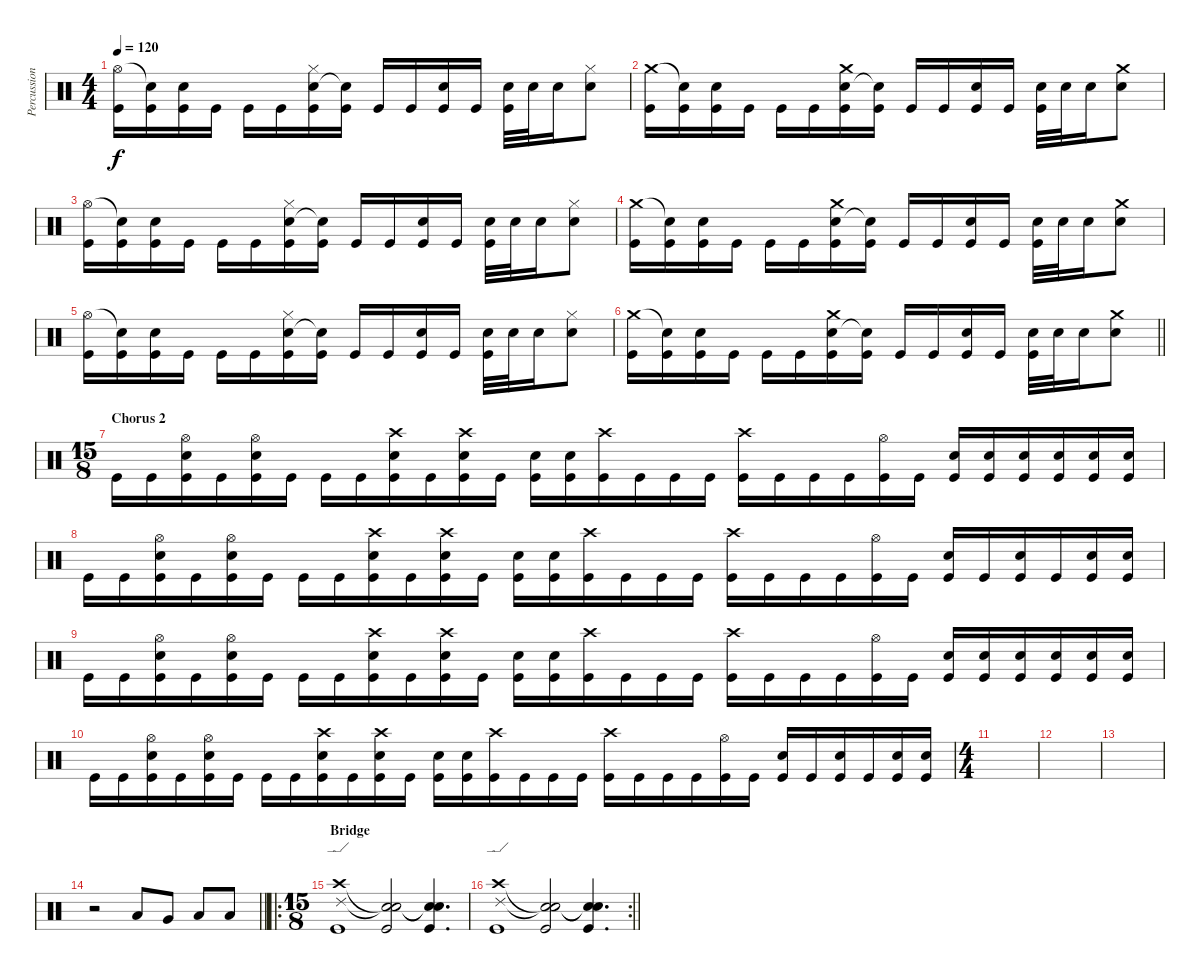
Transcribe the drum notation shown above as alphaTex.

\track ("Percussion" "Percussion") {instrument percussion}
\staff {score}
\articulation defaults
\ts (4 4)
\tempo 120
\clef neutral
\ks c
("Hi-Hat (open)" "Kick (hit)").16{dy f} ("Snare (hit)"{t} "Kick (hit)").16 ("Snare (hit) 2" "Kick (hit)").16 "Kick (hit)".16 "Kick (hit)".16 "Kick (hit)".16 ("Snare (hit) 2" "Hi-Hat (closed)" "Kick (hit)").16 ("Snare (hit)"{t} "Kick (hit)").16 "Kick (hit)".16 "Kick (hit)".16 ("Snare (hit) 2" "Kick (hit)").16 "Kick (hit)".16 ("Snare (hit) 2" "Kick (hit)").32 "Snare (hit) 2".32 "Snare (hit) 2".16 ("Snare (hit) 2" "Hi-Hat (closed)").8 |
("Crash medium (hit)" "Kick (hit)").16 ("Snare (hit)"{t} "Kick (hit)").16 ("Snare (hit) 2" "Kick (hit)").16 "Kick (hit)".16 "Kick (hit)".16 "Kick (hit)".16 ("Snare (hit) 2" "Crash medium (hit)" "Kick (hit)").16 ("Snare (hit)"{t} "Kick (hit)").16 "Kick (hit)".16 "Kick (hit)".16 ("Snare (hit) 2" "Kick (hit)").16 "Kick (hit)".16 ("Snare (hit) 2" "Kick (hit)").32 "Snare (hit) 2".32 "Snare (hit) 2".16 ("Snare (hit) 2" "Crash medium (hit)").8 |
("Hi-Hat (open)" "Kick (hit)").16 ("Snare (hit)"{t} "Kick (hit)").16 ("Snare (hit) 2" "Kick (hit)").16 "Kick (hit)".16 "Kick (hit)".16 "Kick (hit)".16 ("Snare (hit) 2" "Hi-Hat (closed)" "Kick (hit)").16 ("Snare (hit)"{t} "Kick (hit)").16 "Kick (hit)".16 "Kick (hit)".16 ("Snare (hit) 2" "Kick (hit)").16 "Kick (hit)".16 ("Snare (hit) 2" "Kick (hit)").32 "Snare (hit) 2".32 "Snare (hit) 2".16 ("Snare (hit) 2" "Hi-Hat (closed)").8 |
("Crash medium (hit)" "Kick (hit)").16 ("Snare (hit)"{t} "Kick (hit)").16 ("Snare (hit) 2" "Kick (hit)").16 "Kick (hit)".16 "Kick (hit)".16 "Kick (hit)".16 ("Snare (hit) 2" "Crash medium (hit)" "Kick (hit)").16 ("Snare (hit)"{t} "Kick (hit)").16 "Kick (hit)".16 "Kick (hit)".16 ("Snare (hit) 2" "Kick (hit)").16 "Kick (hit)".16 ("Snare (hit) 2" "Kick (hit)").32 "Snare (hit) 2".32 "Snare (hit) 2".16 ("Snare (hit) 2" "Crash medium (hit)").8 |
("Hi-Hat (open)" "Kick (hit)").16 ("Snare (hit)"{t} "Kick (hit)").16 ("Snare (hit) 2" "Kick (hit)").16 "Kick (hit)".16 "Kick (hit)".16 "Kick (hit)".16 ("Snare (hit) 2" "Hi-Hat (closed)" "Kick (hit)").16 ("Snare (hit)"{t} "Kick (hit)").16 "Kick (hit)".16 "Kick (hit)".16 ("Snare (hit) 2" "Kick (hit)").16 "Kick (hit)".16 ("Snare (hit) 2" "Kick (hit)").32 "Snare (hit) 2".32 "Snare (hit) 2".16 ("Snare (hit) 2" "Hi-Hat (closed)").8 |
\barLineRight lightlight
("Crash medium (hit)" "Kick (hit)").16 ("Snare (hit)"{t} "Kick (hit)").16 ("Snare (hit) 2" "Kick (hit)").16 "Kick (hit)".16 "Kick (hit)".16 "Kick (hit)".16 ("Snare (hit) 2" "Crash medium (hit)" "Kick (hit)").16 ("Snare (hit)"{t} "Kick (hit)").16 "Kick (hit)".16 "Kick (hit)".16 ("Snare (hit) 2" "Kick (hit)").16 "Kick (hit)".16 ("Snare (hit) 2" "Kick (hit)").32 "Snare (hit) 2".32 "Snare (hit) 2".16 ("Snare (hit) 2" "Crash medium (hit)").8 |
\ts (15 8)
\section ("" "Chorus 2")
"Kick (hit)".16 "Kick (hit)".16 ("Hi-Hat (open)" "Snare (hit) 2" "Kick (hit)").16 "Kick (hit)".16 ("Hi-Hat (open)" "Snare (hit) 2" "Kick (hit)").16 "Kick (hit)".16 "Kick (hit)".16 "Kick (hit)".16 ("Crash high (hit)" "Snare (hit) 2" "Kick (hit)").16 "Kick (hit)".16 ("Crash high (hit)" "Snare (hit) 2" "Kick (hit)").16 "Kick (hit)".16 ("Snare (hit) 2" "Kick (hit)").16 ("Snare (hit) 2" "Kick (hit)").16 ("Crash high (hit)" "Kick (hit)").16 "Kick (hit)".16 "Kick (hit)".16 "Kick (hit)".16 ("Crash high (hit)" "Kick (hit)").16 "Kick (hit)".16 "Kick (hit)".16 "Kick (hit)".16 ("Hi-Hat (open)" "Kick (hit)").16 "Kick (hit)".16 ("Snare (hit) 2" "Kick (hit)").16 ("Snare (hit) 2" "Kick (hit)").16 ("Snare (hit) 2" "Kick (hit)").16 ("Snare (hit) 2" "Kick (hit)").16 ("Snare (hit) 2" "Kick (hit)").16 ("Snare (hit) 2" "Kick (hit)").16 |
"Kick (hit)".16 "Kick (hit)".16 ("Hi-Hat (open)" "Snare (hit) 2" "Kick (hit)").16 "Kick (hit)".16 ("Hi-Hat (open)" "Snare (hit) 2" "Kick (hit)").16 "Kick (hit)".16 "Kick (hit)".16 "Kick (hit)".16 ("Crash high (hit)" "Snare (hit) 2" "Kick (hit)").16 "Kick (hit)".16 ("Crash high (hit)" "Snare (hit) 2" "Kick (hit)").16 "Kick (hit)".16 ("Snare (hit) 2" "Kick (hit)").16 ("Snare (hit) 2" "Kick (hit)").16 ("Crash high (hit)" "Kick (hit)").16 "Kick (hit)".16 "Kick (hit)".16 "Kick (hit)".16 ("Crash high (hit)" "Kick (hit)").16 "Kick (hit)".16 "Kick (hit)".16 "Kick (hit)".16 ("Hi-Hat (open)" "Kick (hit)").16 "Kick (hit)".16 ("Snare (hit) 2" "Kick (hit)").16 "Kick (hit)".16 ("Snare (hit) 2" "Kick (hit)").16 "Kick (hit)".16 ("Snare (hit) 2" "Kick (hit)").16 ("Snare (hit) 2" "Kick (hit)").16 |
"Kick (hit)".16 "Kick (hit)".16 ("Hi-Hat (open)" "Snare (hit) 2" "Kick (hit)").16 "Kick (hit)".16 ("Hi-Hat (open)" "Snare (hit) 2" "Kick (hit)").16 "Kick (hit)".16 "Kick (hit)".16 "Kick (hit)".16 ("Crash high (hit)" "Snare (hit) 2" "Kick (hit)").16 "Kick (hit)".16 ("Crash high (hit)" "Snare (hit) 2" "Kick (hit)").16 "Kick (hit)".16 ("Snare (hit) 2" "Kick (hit)").16 ("Snare (hit) 2" "Kick (hit)").16 ("Crash high (hit)" "Kick (hit)").16 "Kick (hit)".16 "Kick (hit)".16 "Kick (hit)".16 ("Crash high (hit)" "Kick (hit)").16 "Kick (hit)".16 "Kick (hit)".16 "Kick (hit)".16 ("Hi-Hat (open)" "Kick (hit)").16 "Kick (hit)".16 ("Snare (hit) 2" "Kick (hit)").16 ("Snare (hit) 2" "Kick (hit)").16 ("Snare (hit) 2" "Kick (hit)").16 ("Snare (hit) 2" "Kick (hit)").16 ("Snare (hit) 2" "Kick (hit)").16 ("Snare (hit) 2" "Kick (hit)").16 |
"Kick (hit)".16 "Kick (hit)".16 ("Hi-Hat (open)" "Snare (hit) 2" "Kick (hit)").16 "Kick (hit)".16 ("Hi-Hat (open)" "Snare (hit) 2" "Kick (hit)").16 "Kick (hit)".16 "Kick (hit)".16 "Kick (hit)".16 ("Crash high (hit)" "Snare (hit) 2" "Kick (hit)").16 "Kick (hit)".16 ("Crash high (hit)" "Snare (hit) 2" "Kick (hit)").16 "Kick (hit)".16 ("Snare (hit) 2" "Kick (hit)").16 ("Snare (hit) 2" "Kick (hit)").16 ("Crash high (hit)" "Kick (hit)").16 "Kick (hit)".16 "Kick (hit)".16 "Kick (hit)".16 ("Crash high (hit)" "Kick (hit)").16 "Kick (hit)".16 "Kick (hit)".16 "Kick (hit)".16 ("Hi-Hat (open)" "Kick (hit)").16 "Kick (hit)".16 ("Snare (hit) 2" "Kick (hit)").16 "Kick (hit)".16 ("Snare (hit) 2" "Kick (hit)").16 "Kick (hit)".16 ("Snare (hit) 2" "Kick (hit)").16 ("Snare (hit) 2" "Kick (hit)").16 |
\ts (4 4)
|
|
|
\barLineRight lightlight
r.2 "Low Tom (hit)".8 "Very Low Tom (hit)".8 "Low Floor Tom (hit)".8 "Low Floor Tom (hit)".8 |
\ro
\ts (15 8)
\section ("" "Bridge")
("Crash high (hit)" "Ride (edge) 2" "Kick (hit)").1 ("Snare (hit)"{t} "Snare (hit)"{t} "Kick (hit)").2 ("Snare (hit)"{t} "Snare (hit)"{t} "Kick (hit)").4{d} |
\rc 2
\barLineRight lightlight
("Crash high (hit)" "Ride (edge) 2" "Kick (hit)").1 ("Snare (hit)"{t} "Snare (hit)"{t} "Kick (hit)").2 ("Snare (hit)"{t} "Snare (hit)"{t} "Kick (hit)").4{d}
